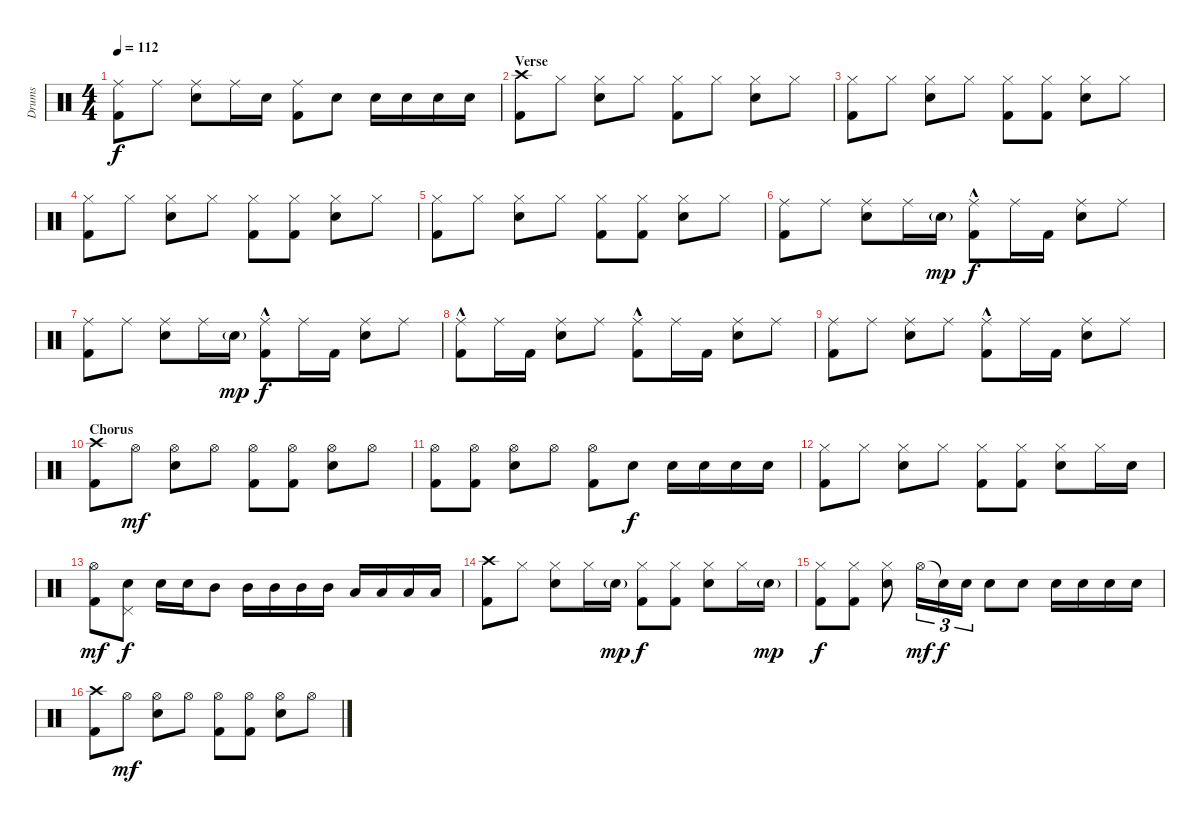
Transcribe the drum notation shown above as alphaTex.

\track ("Drums" "Drums") {instrument percussion}
\staff {score}
\articulation defaults
\ts (4 4)
\tempo 112
\clef neutral
\ks c
("Ride (middle)" "Kick (hit) 2").8{dy f} "Ride (middle)".8 ("Ride (middle)" "Electric Snare (hit)").8 "Ride (middle)".16 "Electric Snare (hit)".16 ("Ride (middle)" "Kick (hit) 2").8 "Electric Snare (hit)".8 "Electric Snare (hit)".16 "Electric Snare (hit)".16 "Electric Snare (hit)".16 "Electric Snare (hit)".16 |
\section ("" "Verse")
("Crash high (hit)" "Kick (hit) 2").8 "Hi-Hat (closed)".8 ("Hi-Hat (closed)" "Electric Snare (hit)").8 "Hi-Hat (closed)".8 ("Hi-Hat (closed)" "Kick (hit) 2").8 "Hi-Hat (closed)".8 ("Hi-Hat (closed)" "Electric Snare (hit)").8 "Hi-Hat (closed)".8 |
("Hi-Hat (closed)" "Kick (hit) 2").8 "Hi-Hat (closed)".8 ("Hi-Hat (closed)" "Electric Snare (hit)").8 "Hi-Hat (closed)".8 ("Hi-Hat (closed)" "Kick (hit) 2").8 ("Hi-Hat (closed)" "Kick (hit) 2").8 ("Hi-Hat (closed)" "Electric Snare (hit)").8 "Hi-Hat (closed)".8 |
("Hi-Hat (closed)" "Kick (hit) 2").8 "Hi-Hat (closed)".8 ("Hi-Hat (closed)" "Electric Snare (hit)").8 "Hi-Hat (closed)".8 ("Hi-Hat (closed)" "Kick (hit) 2").8 ("Hi-Hat (closed)" "Kick (hit) 2").8 ("Hi-Hat (closed)" "Electric Snare (hit)").8 "Hi-Hat (closed)".8 |
("Hi-Hat (closed)" "Kick (hit) 2").8 "Hi-Hat (closed)".8 ("Hi-Hat (closed)" "Electric Snare (hit)").8 "Hi-Hat (closed)".8 ("Hi-Hat (closed)" "Kick (hit) 2").8 ("Hi-Hat (closed)" "Kick (hit) 2").8 ("Hi-Hat (closed)" "Electric Snare (hit)").8 "Hi-Hat (closed)".8 |
("Ride (middle)" "Kick (hit) 2").8 "Ride (middle)".8 ("Ride (middle)" "Electric Snare (hit)").8 "Ride (middle)".16 "Electric Snare (hit)"{g}.16{dy mp} ("Ride (middle)" "Kick (hit) 2"{hac}).8{dy f} "Ride (middle)".16 "Kick (hit) 2".16 ("Ride (middle)" "Electric Snare (hit)").8 "Ride (middle)".8 |
("Ride (middle)" "Kick (hit) 2").8 "Ride (middle)".8 ("Ride (middle)" "Electric Snare (hit)").8 "Ride (middle)".16 "Electric Snare (hit)"{g}.16{dy mp} ("Ride (middle)" "Kick (hit) 2"{hac}).8{dy f} "Ride (middle)".16 "Kick (hit) 2".16 ("Ride (middle)" "Electric Snare (hit)").8 "Ride (middle)".8 |
("Ride (middle)" "Kick (hit) 2"{hac}).8 "Ride (middle)".16 "Kick (hit) 2".16 ("Ride (middle)" "Electric Snare (hit)").8 "Ride (middle)".8 ("Ride (middle)" "Kick (hit) 2"{hac}).8 "Ride (middle)".16 "Kick (hit) 2".16 ("Ride (middle)" "Electric Snare (hit)").8 "Ride (middle)".8 |
("Ride (middle)" "Kick (hit) 2").8 "Ride (middle)".8 ("Ride (middle)" "Electric Snare (hit)").8 "Ride (middle)".8 ("Ride (middle)" "Kick (hit) 2"{hac}).8 "Ride (middle)".16 "Kick (hit) 2".16 ("Ride (middle)" "Electric Snare (hit)").8 "Ride (middle)".8 |
\section ("" "Chorus")
("Crash high (hit)" "Kick (hit) 2").8 "Hi-Hat (open)".8{dy mf} ("Hi-Hat (open)" "Electric Snare (hit)").8 "Hi-Hat (open)".8 ("Hi-Hat (open)" "Kick (hit) 2").8 ("Hi-Hat (open)" "Kick (hit) 2").8 ("Hi-Hat (open)" "Electric Snare (hit)").8 "Hi-Hat (open)".8 |
("Hi-Hat (open)" "Kick (hit) 2").8 ("Hi-Hat (open)" "Kick (hit) 2").8 ("Hi-Hat (open)" "Electric Snare (hit)").8 "Hi-Hat (open)".8 ("Hi-Hat (open)" "Kick (hit) 2").8 "Electric Snare (hit)".8{dy f} "Electric Snare (hit)".16 "Electric Snare (hit)".16 "Electric Snare (hit)".16 "Electric Snare (hit)".16 |
("Hi-Hat (closed)" "Kick (hit) 2").8 "Hi-Hat (closed)".8 ("Hi-Hat (closed)" "Electric Snare (hit)").8 "Hi-Hat (closed)".8 ("Hi-Hat (closed)" "Kick (hit) 2").8 ("Hi-Hat (closed)" "Kick (hit) 2").8 ("Hi-Hat (closed)" "Electric Snare (hit)").8 "Hi-Hat (closed)".16 "Electric Snare (hit)".16 |
("Hi-Hat (open)" "Kick (hit) 2").8{dy mf} ("Electric Snare (hit)" "Pedal Hi-Hat (hit)").8{dy f} "Electric Snare (hit)".16 "Electric Snare (hit)".16 "Mid Tom (hit)".8 "Mid Tom (hit)".16 "Mid Tom (hit)".16 "Mid Tom (hit)".16 "Mid Tom (hit)".16 "Low Tom (hit)".16 "Low Tom (hit)".16 "Low Tom (hit)".16 "Low Tom (hit)".16 |
("Crash high (hit)" "Kick (hit) 2").8 "Hi-Hat (closed)".8 ("Hi-Hat (closed)" "Electric Snare (hit)").8 "Hi-Hat (closed)".16 "Electric Snare (hit)"{g}.16{dy mp} ("Hi-Hat (closed)" "Kick (hit) 2").8{dy f} ("Hi-Hat (closed)" "Kick (hit) 2").8 ("Hi-Hat (closed)" "Electric Snare (hit)").8 "Hi-Hat (closed)".16 "Electric Snare (hit)"{g}.16{dy mp} |
("Hi-Hat (closed)" "Kick (hit) 2").8{dy f} ("Hi-Hat (closed)" "Kick (hit) 2").8 ("Hi-Hat (closed)" "Electric Snare (hit)").8 "Hi-Hat (open)".16{tu (3 2) dy mf} "Snare (hit)"{t}.16{tu (3 2) dy f} "Electric Snare (hit)".16{tu (3 2)} "Electric Snare (hit)".8 "Electric Snare (hit)".8 "Electric Snare (hit)".16 "Electric Snare (hit)".16 "Electric Snare (hit)".16 "Electric Snare (hit)".16 |
("Crash high (hit)" "Kick (hit) 2").8 "Hi-Hat (open)".8{dy mf} ("Hi-Hat (open)" "Electric Snare (hit)").8 "Hi-Hat (open)".8 ("Hi-Hat (open)" "Kick (hit) 2").8 ("Hi-Hat (open)" "Kick (hit) 2").8 ("Hi-Hat (open)" "Electric Snare (hit)").8 "Hi-Hat (open)".8
